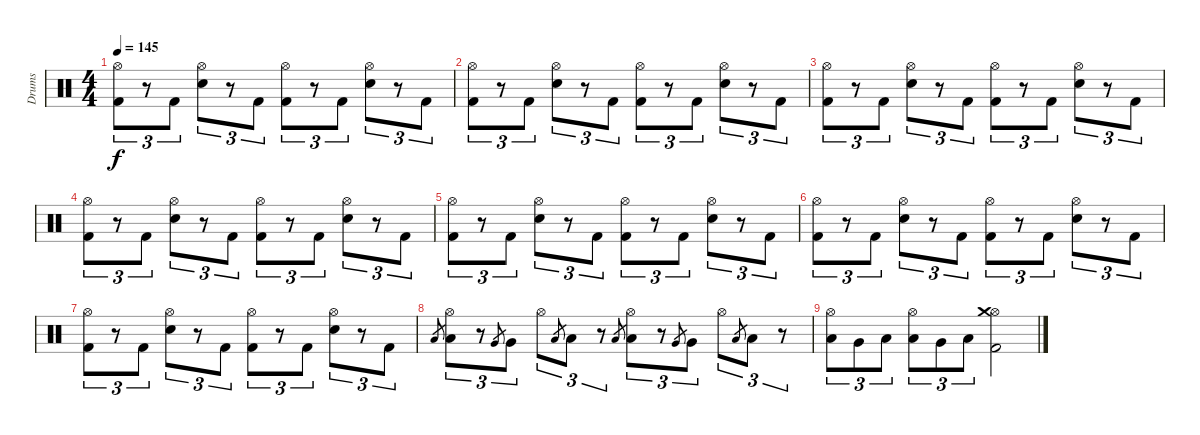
\track ("Drums" "Drums") {instrument percussion}
\staff {score}
\articulation defaults
\ts (4 4)
\tempo 145
\clef neutral
\ks c
("Hi-Hat (open)" "Kick (hit) 2").8{tu (3 2) dy f} r.8{tu (3 2)} "Kick (hit) 2".8{tu (3 2)} ("Hi-Hat (open)" "Electric Snare (hit)").8{tu (3 2)} r.8{tu (3 2)} "Kick (hit) 2".8{tu (3 2)} ("Hi-Hat (open)" "Kick (hit) 2").8{tu (3 2)} r.8{tu (3 2)} "Kick (hit) 2".8{tu (3 2)} ("Hi-Hat (open)" "Electric Snare (hit)").8{tu (3 2)} r.8{tu (3 2)} "Kick (hit) 2".8{tu (3 2)} |
("Hi-Hat (open)" "Kick (hit) 2").8{tu (3 2)} r.8{tu (3 2)} "Kick (hit) 2".8{tu (3 2)} ("Hi-Hat (open)" "Electric Snare (hit)").8{tu (3 2)} r.8{tu (3 2)} "Kick (hit) 2".8{tu (3 2)} ("Hi-Hat (open)" "Kick (hit) 2").8{tu (3 2)} r.8{tu (3 2)} "Kick (hit) 2".8{tu (3 2)} ("Hi-Hat (open)" "Electric Snare (hit)").8{tu (3 2)} r.8{tu (3 2)} "Kick (hit) 2".8{tu (3 2)} |
("Hi-Hat (open)" "Kick (hit) 2").8{tu (3 2)} r.8{tu (3 2)} "Kick (hit) 2".8{tu (3 2)} ("Hi-Hat (open)" "Electric Snare (hit)").8{tu (3 2)} r.8{tu (3 2)} "Kick (hit) 2".8{tu (3 2)} ("Hi-Hat (open)" "Kick (hit) 2").8{tu (3 2)} r.8{tu (3 2)} "Kick (hit) 2".8{tu (3 2)} ("Hi-Hat (open)" "Electric Snare (hit)").8{tu (3 2)} r.8{tu (3 2)} "Kick (hit) 2".8{tu (3 2)} |
("Hi-Hat (open)" "Kick (hit) 2").8{tu (3 2)} r.8{tu (3 2)} "Kick (hit) 2".8{tu (3 2)} ("Hi-Hat (open)" "Electric Snare (hit)").8{tu (3 2)} r.8{tu (3 2)} "Kick (hit) 2".8{tu (3 2)} ("Hi-Hat (open)" "Kick (hit) 2").8{tu (3 2)} r.8{tu (3 2)} "Kick (hit) 2".8{tu (3 2)} ("Hi-Hat (open)" "Electric Snare (hit)").8{tu (3 2)} r.8{tu (3 2)} "Kick (hit) 2".8{tu (3 2)} |
("Hi-Hat (open)" "Kick (hit) 2").8{tu (3 2)} r.8{tu (3 2)} "Kick (hit) 2".8{tu (3 2)} ("Hi-Hat (open)" "Electric Snare (hit)").8{tu (3 2)} r.8{tu (3 2)} "Kick (hit) 2".8{tu (3 2)} ("Hi-Hat (open)" "Kick (hit) 2").8{tu (3 2)} r.8{tu (3 2)} "Kick (hit) 2".8{tu (3 2)} ("Hi-Hat (open)" "Electric Snare (hit)").8{tu (3 2)} r.8{tu (3 2)} "Kick (hit) 2".8{tu (3 2)} |
("Hi-Hat (open)" "Kick (hit) 2").8{tu (3 2)} r.8{tu (3 2)} "Kick (hit) 2".8{tu (3 2)} ("Hi-Hat (open)" "Electric Snare (hit)").8{tu (3 2)} r.8{tu (3 2)} "Kick (hit) 2".8{tu (3 2)} ("Hi-Hat (open)" "Kick (hit) 2").8{tu (3 2)} r.8{tu (3 2)} "Kick (hit) 2".8{tu (3 2)} ("Hi-Hat (open)" "Electric Snare (hit)").8{tu (3 2)} r.8{tu (3 2)} "Kick (hit) 2".8{tu (3 2)} |
("Hi-Hat (open)" "Kick (hit) 2").8{tu (3 2)} r.8{tu (3 2)} "Kick (hit) 2".8{tu (3 2)} ("Hi-Hat (open)" "Electric Snare (hit)").8{tu (3 2)} r.8{tu (3 2)} "Kick (hit) 2".8{tu (3 2)} ("Hi-Hat (open)" "Kick (hit) 2").8{tu (3 2)} r.8{tu (3 2)} "Kick (hit) 2".8{tu (3 2)} ("Hi-Hat (open)" "Electric Snare (hit)").8{tu (3 2)} r.8{tu (3 2)} "Kick (hit) 2".8{tu (3 2)} |
"Low Tom (hit)".8{gr} ("Hi-Hat (open)" "Low Tom (hit)").8{tu (3 2)} r.8{tu (3 2)} "Very Low Tom (hit)".8{gr} "Very Low Tom (hit)".8{tu (3 2)} "Hi-Hat (open)".8{tu (3 2)} "Low Floor Tom (hit)".8{gr} "Low Floor Tom (hit)".8{tu (3 2)} r.8{tu (3 2)} "Low Tom (hit)".8{gr} ("Hi-Hat (open)" "Low Tom (hit)").8{tu (3 2)} r.8{tu (3 2)} "Very Low Tom (hit)".8{gr} "Very Low Tom (hit)".8{tu (3 2)} "Hi-Hat (open)".8{tu (3 2)} "Low Floor Tom (hit)".8{gr} "Low Floor Tom (hit)".8{tu (3 2)} r.8{tu (3 2)} |
("Hi-Hat (open)" "Low Tom (hit)").8{tu (3 2)} "Very Low Tom (hit)".8{tu (3 2)} "Low Floor Tom (hit)".8{tu (3 2)} ("Hi-Hat (open)" "Low Tom (hit)").8{tu (3 2)} "Very Low Tom (hit)".8{tu (3 2)} "Low Floor Tom (hit)".8{tu (3 2)} ("Hi-Hat (open)" "Crash medium (hit)" "Kick (hit) 2").2
